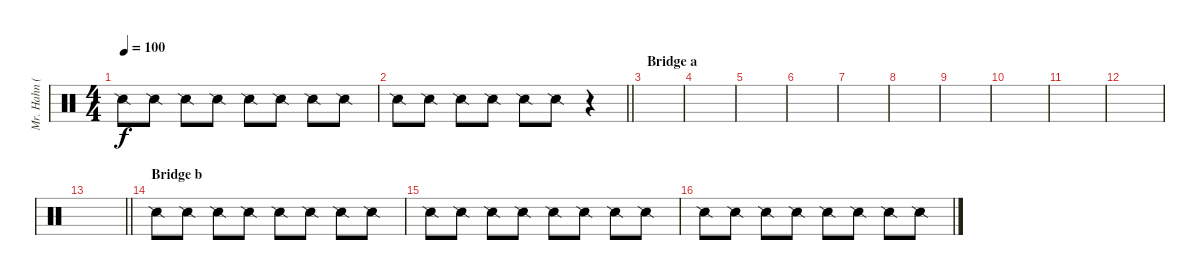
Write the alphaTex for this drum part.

\track ("Mr. Hahn (Sampler)" "Mr. Hahn (") {instrument percussion}
\staff {score}
\articulation defaults
\ts (4 4)
\tempo 100
\clef neutral
\ks c "Snare (side stick) 2".8{dy f} "Snare (side stick) 2".8 "Snare (side stick) 2".8 "Snare (side stick) 2".8 "Snare (side stick) 2".8 "Snare (side stick) 2".8 "Snare (side stick) 2".8 "Snare (side stick) 2".8
|
\barLineRight lightlight "Snare (side stick) 2".8 "Snare (side stick) 2".8 "Snare (side stick) 2".8 "Snare (side stick) 2".8 "Snare (side stick) 2".8 "Snare (side stick) 2".8
r.4 |
\section ("" "Bridge a")
|
|
|
|
|
|
|
|
|
|
\barLineRight lightlight
|
\section ("" "Bridge b")
"Snare (side stick) 2".8 "Snare (side stick) 2".8 "Snare (side stick) 2".8 "Snare (side stick) 2".8 "Snare (side stick) 2".8 "Snare (side stick) 2".8 "Snare (side stick) 2".8 "Snare (side stick) 2".8 |
"Snare (side stick) 2".8 "Snare (side stick) 2".8 "Snare (side stick) 2".8 "Snare (side stick) 2".8 "Snare (side stick) 2".8 "Snare (side stick) 2".8 "Snare (side stick) 2".8 "Snare (side stick) 2".8 |
"Snare (side stick) 2".8 "Snare (side stick) 2".8 "Snare (side stick) 2".8 "Snare (side stick) 2".8 "Snare (side stick) 2".8 "Snare (side stick) 2".8 "Snare (side stick) 2".8 "Snare (side stick) 2".8
